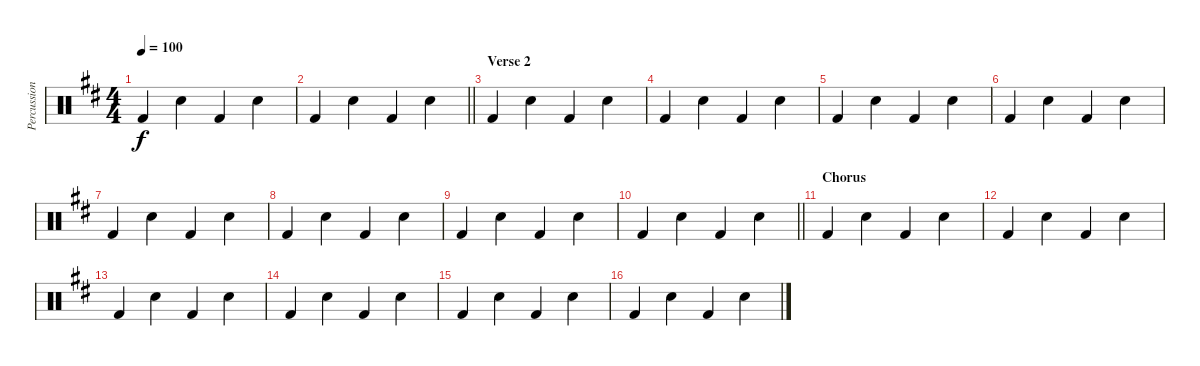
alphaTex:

\track ("Percussion" "Percussion") {instrument percussion}
\staff {score}
\articulation defaults
\ts (4 4)
\tempo 100
\clef neutral
\ks d "Kick (hit) 2".4{dy f} "Electric Snare (hit)".4 "Kick (hit) 2".4 "Electric Snare (hit)".4
|
\barLineRight lightlight "Kick (hit) 2".4 "Electric Snare (hit)".4 "Kick (hit) 2".4 "Electric Snare (hit)".4
|
\section ("" "Verse 2")
"Kick (hit) 2".4 "Electric Snare (hit)".4 "Kick (hit) 2".4 "Electric Snare (hit)".4 |
"Kick (hit) 2".4 "Electric Snare (hit)".4 "Kick (hit) 2".4 "Electric Snare (hit)".4 |
"Kick (hit) 2".4 "Electric Snare (hit)".4 "Kick (hit) 2".4 "Electric Snare (hit)".4 |
"Kick (hit) 2".4 "Electric Snare (hit)".4 "Kick (hit) 2".4 "Electric Snare (hit)".4 |
"Kick (hit) 2".4 "Electric Snare (hit)".4 "Kick (hit) 2".4 "Electric Snare (hit)".4 |
"Kick (hit) 2".4 "Electric Snare (hit)".4 "Kick (hit) 2".4 "Electric Snare (hit)".4 |
"Kick (hit) 2".4 "Electric Snare (hit)".4 "Kick (hit) 2".4 "Electric Snare (hit)".4 |
\barLineRight lightlight "Kick (hit) 2".4 "Electric Snare (hit)".4 "Kick (hit) 2".4 "Electric Snare (hit)".4
|
\section ("" "Chorus")
"Kick (hit) 2".4 "Electric Snare (hit)".4 "Kick (hit) 2".4 "Electric Snare (hit)".4 |
"Kick (hit) 2".4 "Electric Snare (hit)".4 "Kick (hit) 2".4 "Electric Snare (hit)".4 |
"Kick (hit) 2".4 "Electric Snare (hit)".4 "Kick (hit) 2".4 "Electric Snare (hit)".4 |
"Kick (hit) 2".4 "Electric Snare (hit)".4 "Kick (hit) 2".4 "Electric Snare (hit)".4 |
"Kick (hit) 2".4 "Electric Snare (hit)".4 "Kick (hit) 2".4 "Electric Snare (hit)".4 |
"Kick (hit) 2".4 "Electric Snare (hit)".4 "Kick (hit) 2".4 "Electric Snare (hit)".4
